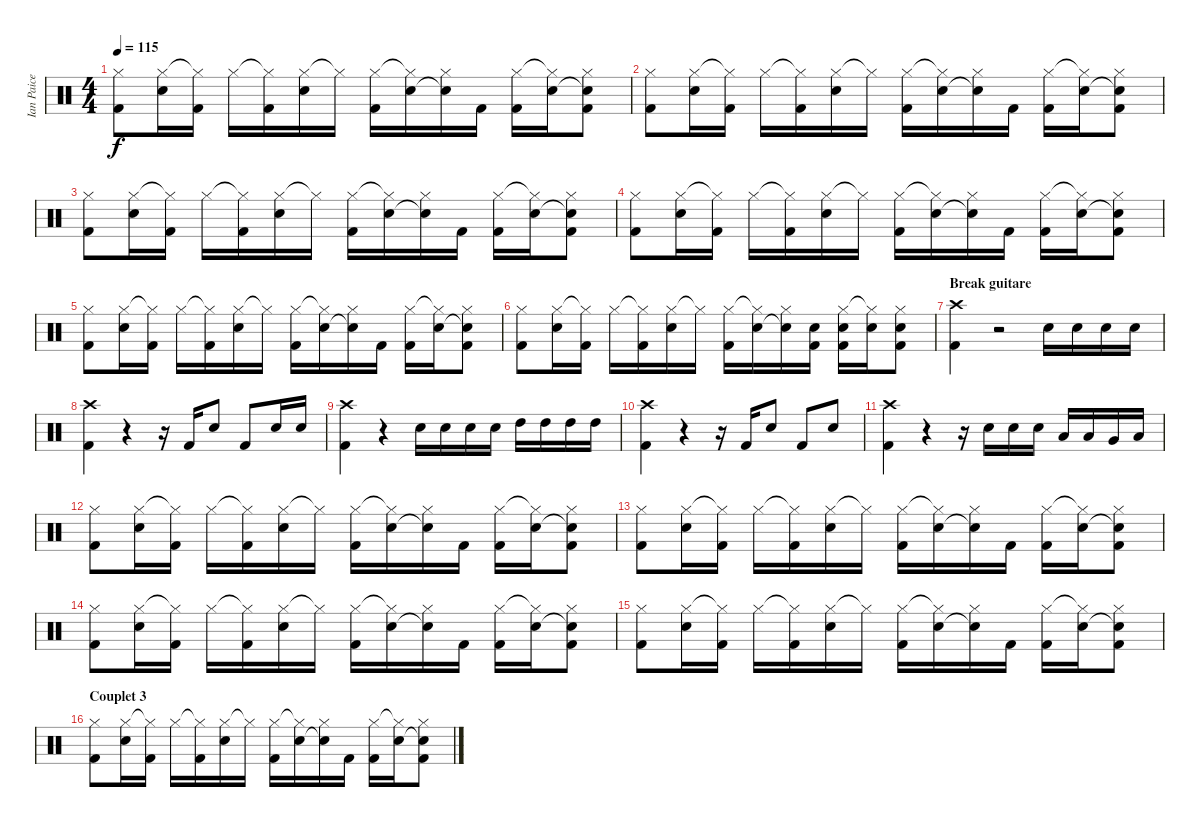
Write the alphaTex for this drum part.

\track ("Ian Paice" "Ian Paice") {instrument percussion}
\staff {score}
\articulation defaults
\ts (4 4)
\tempo 115
\clef neutral
\ks c
("Hi-Hat (closed)" "Kick (hit) 2").8{dy f} ("Hi-Hat (closed)" "Snare (hit) 2").16 ("Hi-Hat (closed)"{t} "Kick (hit) 2").16 "Hi-Hat (closed)".16 ("Hi-Hat (closed)"{t} "Kick (hit) 2").16 ("Hi-Hat (closed)" "Snare (hit) 2").16 "Hi-Hat (closed)"{t}.16 ("Hi-Hat (closed)" "Kick (hit) 2").16 ("Hi-Hat (closed)"{t} "Snare (hit) 2").16 ("Hi-Hat (closed)" "Snare (hit) 2"{t}).16 "Kick (hit) 2".16 ("Hi-Hat (closed)" "Kick (hit) 2").16 ("Hi-Hat (closed)"{t} "Snare (hit) 2").16 ("Hi-Hat (closed)" "Snare (hit) 2"{t} "Kick (hit) 2").8 |
("Hi-Hat (closed)" "Kick (hit) 2").8 ("Hi-Hat (closed)" "Snare (hit) 2").16 ("Hi-Hat (closed)"{t} "Kick (hit) 2").16 "Hi-Hat (closed)".16 ("Hi-Hat (closed)"{t} "Kick (hit) 2").16 ("Hi-Hat (closed)" "Snare (hit) 2").16 "Hi-Hat (closed)"{t}.16 ("Hi-Hat (closed)" "Kick (hit) 2").16 ("Hi-Hat (closed)"{t} "Snare (hit) 2").16 ("Hi-Hat (closed)" "Snare (hit) 2"{t}).16 "Kick (hit) 2".16 ("Hi-Hat (closed)" "Kick (hit) 2").16 ("Hi-Hat (closed)"{t} "Snare (hit) 2").16 ("Hi-Hat (closed)" "Snare (hit) 2"{t} "Kick (hit) 2").8 |
("Hi-Hat (closed)" "Kick (hit) 2").8 ("Hi-Hat (closed)" "Snare (hit) 2").16 ("Hi-Hat (closed)"{t} "Kick (hit) 2").16 "Hi-Hat (closed)".16 ("Hi-Hat (closed)"{t} "Kick (hit) 2").16 ("Hi-Hat (closed)" "Snare (hit) 2").16 "Hi-Hat (closed)"{t}.16 ("Hi-Hat (closed)" "Kick (hit) 2").16 ("Hi-Hat (closed)"{t} "Snare (hit) 2").16 ("Hi-Hat (closed)" "Snare (hit) 2"{t}).16 "Kick (hit) 2".16 ("Hi-Hat (closed)" "Kick (hit) 2").16 ("Hi-Hat (closed)"{t} "Snare (hit) 2").16 ("Hi-Hat (closed)" "Snare (hit) 2"{t} "Kick (hit) 2").8 |
("Hi-Hat (closed)" "Kick (hit) 2").8 ("Hi-Hat (closed)" "Snare (hit) 2").16 ("Hi-Hat (closed)"{t} "Kick (hit) 2").16 "Hi-Hat (closed)".16 ("Hi-Hat (closed)"{t} "Kick (hit) 2").16 ("Hi-Hat (closed)" "Snare (hit) 2").16 "Hi-Hat (closed)"{t}.16 ("Hi-Hat (closed)" "Kick (hit) 2").16 ("Hi-Hat (closed)"{t} "Snare (hit) 2").16 ("Hi-Hat (closed)" "Snare (hit) 2"{t}).16 "Kick (hit) 2".16 ("Hi-Hat (closed)" "Kick (hit) 2").16 ("Hi-Hat (closed)"{t} "Snare (hit) 2").16 ("Hi-Hat (closed)" "Snare (hit) 2"{t} "Kick (hit) 2").8 |
("Hi-Hat (closed)" "Kick (hit) 2").8 ("Hi-Hat (closed)" "Snare (hit) 2").16 ("Hi-Hat (closed)"{t} "Kick (hit) 2").16 "Hi-Hat (closed)".16 ("Hi-Hat (closed)"{t} "Kick (hit) 2").16 ("Hi-Hat (closed)" "Snare (hit) 2").16 "Hi-Hat (closed)"{t}.16 ("Hi-Hat (closed)" "Kick (hit) 2").16 ("Hi-Hat (closed)"{t} "Snare (hit) 2").16 ("Hi-Hat (closed)" "Snare (hit) 2"{t}).16 "Kick (hit) 2".16 ("Hi-Hat (closed)" "Kick (hit) 2").16 ("Hi-Hat (closed)"{t} "Snare (hit) 2").16 ("Hi-Hat (closed)" "Snare (hit) 2"{t} "Kick (hit) 2").8 |
("Hi-Hat (closed)" "Kick (hit) 2").8 ("Hi-Hat (closed)" "Snare (hit) 2").16 ("Hi-Hat (closed)"{t} "Kick (hit) 2").16 "Hi-Hat (closed)".16 ("Hi-Hat (closed)"{t} "Kick (hit) 2").16 ("Hi-Hat (closed)" "Snare (hit) 2").16 "Hi-Hat (closed)"{t}.16 ("Hi-Hat (closed)" "Kick (hit) 2").16 ("Hi-Hat (closed)"{t} "Snare (hit) 2").16 ("Hi-Hat (closed)" "Snare (hit) 2"{t}).16 ("Snare (hit) 2" "Kick (hit) 2").16 ("Hi-Hat (closed)" "Snare (hit) 2" "Kick (hit) 2").16 ("Hi-Hat (closed)"{t} "Snare (hit) 2").16 ("Hi-Hat (closed)" "Snare (hit) 2" "Kick (hit) 2").8 |
\section ("" "Break guitare")
("Crash high (hit)" "Kick (hit) 2").4 r.2 "Snare (hit) 2".16 "Snare (hit) 2".16 "Snare (hit) 2".16 "Snare (hit) 2".16 |
("Crash high (hit)" "Kick (hit) 2").4 r.4 r.16 "Kick (hit) 2".16 "Snare (hit) 2".8 "Kick (hit) 2".8 "Snare (hit) 2".16 "Snare (hit) 2".16 |
("Crash high (hit)" "Kick (hit) 2").4 r.4 "Snare (hit) 2".16 "Snare (hit) 2".16 "Snare (hit) 2".16 "Snare (hit) 2".16 "High Tom (hit)".16 "High Tom (hit)".16 "High Tom (hit)".16 "High Tom (hit)".16 |
("Crash high (hit)" "Kick (hit) 2").4 r.4 r.16 "Kick (hit) 2".16 "Snare (hit) 2".8 "Kick (hit) 2".8 "Snare (hit) 2".8 |
("Crash high (hit)" "Kick (hit) 2").4 r.4 r.16 "Snare (hit) 2".16 "Snare (hit) 2".16 "Snare (hit) 2".16 "Low Tom (hit)".16 "Low Tom (hit)".16 "Very Low Tom (hit)".16 "Low Floor Tom (hit)".16 |
("Hi-Hat (closed)" "Kick (hit) 2").8 ("Hi-Hat (closed)" "Snare (hit) 2").16 ("Hi-Hat (closed)"{t} "Kick (hit) 2").16 "Hi-Hat (closed)".16 ("Hi-Hat (closed)"{t} "Kick (hit) 2").16 ("Hi-Hat (closed)" "Snare (hit) 2").16 "Hi-Hat (closed)"{t}.16 ("Hi-Hat (closed)" "Kick (hit) 2").16 ("Hi-Hat (closed)"{t} "Snare (hit) 2").16 ("Hi-Hat (closed)" "Snare (hit) 2"{t}).16 "Kick (hit) 2".16 ("Hi-Hat (closed)" "Kick (hit) 2").16 ("Hi-Hat (closed)"{t} "Snare (hit) 2").16 ("Hi-Hat (closed)" "Snare (hit) 2"{t} "Kick (hit) 2").8 |
("Hi-Hat (closed)" "Kick (hit) 2").8 ("Hi-Hat (closed)" "Snare (hit) 2").16 ("Hi-Hat (closed)"{t} "Kick (hit) 2").16 "Hi-Hat (closed)".16 ("Hi-Hat (closed)"{t} "Kick (hit) 2").16 ("Hi-Hat (closed)" "Snare (hit) 2").16 "Hi-Hat (closed)"{t}.16 ("Hi-Hat (closed)" "Kick (hit) 2").16 ("Hi-Hat (closed)"{t} "Snare (hit) 2").16 ("Hi-Hat (closed)" "Snare (hit) 2"{t}).16 "Kick (hit) 2".16 ("Hi-Hat (closed)" "Kick (hit) 2").16 ("Hi-Hat (closed)"{t} "Snare (hit) 2").16 ("Hi-Hat (closed)" "Snare (hit) 2"{t} "Kick (hit) 2").8 |
("Hi-Hat (closed)" "Kick (hit) 2").8 ("Hi-Hat (closed)" "Snare (hit) 2").16 ("Hi-Hat (closed)"{t} "Kick (hit) 2").16 "Hi-Hat (closed)".16 ("Hi-Hat (closed)"{t} "Kick (hit) 2").16 ("Hi-Hat (closed)" "Snare (hit) 2").16 "Hi-Hat (closed)"{t}.16 ("Hi-Hat (closed)" "Kick (hit) 2").16 ("Hi-Hat (closed)"{t} "Snare (hit) 2").16 ("Hi-Hat (closed)" "Snare (hit) 2"{t}).16 "Kick (hit) 2".16 ("Hi-Hat (closed)" "Kick (hit) 2").16 ("Hi-Hat (closed)"{t} "Snare (hit) 2").16 ("Hi-Hat (closed)" "Snare (hit) 2"{t} "Kick (hit) 2").8 |
("Hi-Hat (closed)" "Kick (hit) 2").8 ("Hi-Hat (closed)" "Snare (hit) 2").16 ("Hi-Hat (closed)"{t} "Kick (hit) 2").16 "Hi-Hat (closed)".16 ("Hi-Hat (closed)"{t} "Kick (hit) 2").16 ("Hi-Hat (closed)" "Snare (hit) 2").16 "Hi-Hat (closed)"{t}.16 ("Hi-Hat (closed)" "Kick (hit) 2").16 ("Hi-Hat (closed)"{t} "Snare (hit) 2").16 ("Hi-Hat (closed)" "Snare (hit) 2"{t}).16 "Kick (hit) 2".16 ("Hi-Hat (closed)" "Kick (hit) 2").16 ("Hi-Hat (closed)"{t} "Snare (hit) 2").16 ("Hi-Hat (closed)" "Snare (hit) 2"{t} "Kick (hit) 2").8 |
\section ("" "Couplet 3")
("Hi-Hat (closed)" "Kick (hit) 2").8 ("Hi-Hat (closed)" "Snare (hit) 2").16 ("Hi-Hat (closed)"{t} "Kick (hit) 2").16 "Hi-Hat (closed)".16 ("Hi-Hat (closed)"{t} "Kick (hit) 2").16 ("Hi-Hat (closed)" "Snare (hit) 2").16 "Hi-Hat (closed)"{t}.16 ("Hi-Hat (closed)" "Kick (hit) 2").16 ("Hi-Hat (closed)"{t} "Snare (hit) 2").16 ("Hi-Hat (closed)" "Snare (hit) 2"{t}).16 "Kick (hit) 2".16 ("Hi-Hat (closed)" "Kick (hit) 2").16 ("Hi-Hat (closed)"{t} "Snare (hit) 2").16 ("Hi-Hat (closed)" "Snare (hit) 2"{t} "Kick (hit) 2").8
